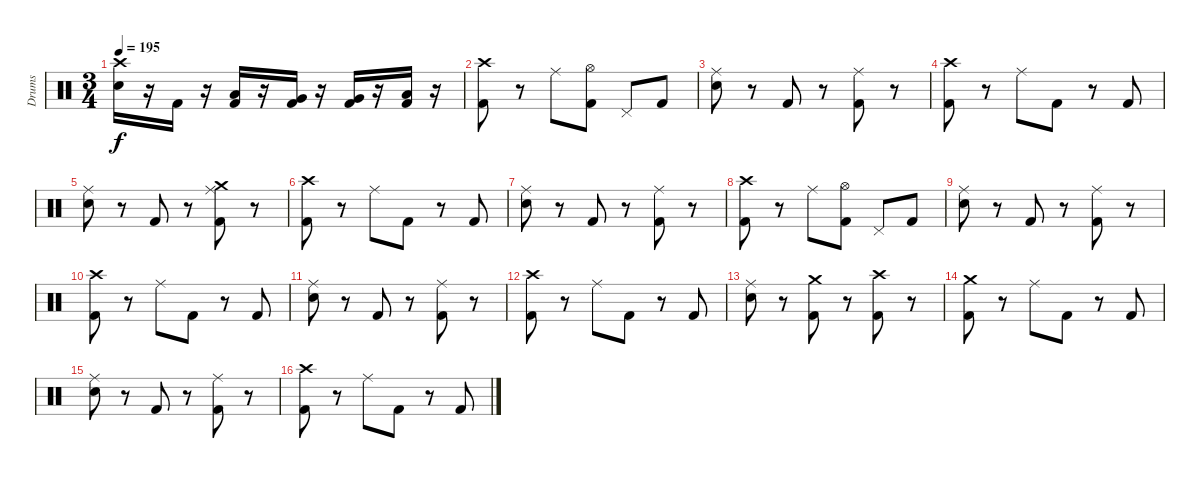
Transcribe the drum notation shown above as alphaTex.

\track ("Drums" "Drums") {instrument percussion}
\staff {score}
\articulation defaults
\ts (3 4)
\tempo 195
\clef neutral
\ks c
("Crash high (hit)" "Electric Snare (hit)").16{dy f} r.16 "Kick (hit) 2".16 r.16 ("Low Tom (hit)" "Kick (hit) 2").16 r.16 ("Very Low Tom (hit)" "Kick (hit) 2").16 r.16 ("Very Low Tom (hit)" "Kick (hit) 2").16 r.16 ("Low Floor Tom (hit)" "Kick (hit) 2").16 r.16 |
("Crash high (hit)" "Kick (hit) 2").8 r.8 "Ride (middle)".8 ("Hi-Hat (open)" "Kick (hit) 2").8 "Pedal Hi-Hat (hit)".8 "Kick (hit) 2".8 |
("Ride (middle)" "Electric Snare (hit)").8 r.8 "Kick (hit) 2".8 r.8 ("Ride (middle)" "Kick (hit) 2").8 r.8 |
("Crash high (hit)" "Kick (hit) 2").8 r.8 "Ride (middle)".8 "Kick (hit) 2".8 r.8 "Kick (hit) 2".8 |
("Ride (middle)" "Electric Snare (hit)").8 r.8 "Kick (hit) 2".8 r.8 ("Crash medium (hit)" "Ride (middle)" "Kick (hit) 2").8 r.8 |
("Crash high (hit)" "Kick (hit) 2").8 r.8 "Ride (middle)".8 "Kick (hit) 2".8 r.8 "Kick (hit) 2".8 |
("Ride (middle)" "Electric Snare (hit)").8 r.8 "Kick (hit) 2".8 r.8 ("Ride (middle)" "Kick (hit) 2").8 r.8 |
("Crash high (hit)" "Kick (hit) 2").8 r.8 "Ride (middle)".8 ("Hi-Hat (open)" "Kick (hit) 2").8 "Pedal Hi-Hat (hit)".8 "Kick (hit) 2".8 |
("Ride (middle)" "Electric Snare (hit)").8 r.8 "Kick (hit) 2".8 r.8 ("Ride (middle)" "Kick (hit) 2").8 r.8 |
("Crash high (hit)" "Kick (hit) 2").8 r.8 "Ride (middle)".8 "Kick (hit) 2".8 r.8 "Kick (hit) 2".8 |
("Ride (middle)" "Electric Snare (hit)").8 r.8 "Kick (hit) 2".8 r.8 ("Ride (middle)" "Kick (hit) 2").8 r.8 |
("Crash high (hit)" "Kick (hit) 2").8 r.8 "Ride (middle)".8 "Kick (hit) 2".8 r.8 "Kick (hit) 2".8 |
("Ride (middle)" "Electric Snare (hit)").8 r.8 ("Crash medium (hit)" "Kick (hit) 2").8 r.8 ("Crash high (hit)" "Kick (hit) 2").8 r.8 |
("Crash medium (hit)" "Kick (hit) 2").8 r.8 "Ride (middle)".8 "Kick (hit) 2".8 r.8 "Kick (hit) 2".8 |
("Ride (middle)" "Electric Snare (hit)").8 r.8 "Kick (hit) 2".8 r.8 ("Ride (middle)" "Kick (hit) 2").8 r.8 |
("Crash high (hit)" "Kick (hit) 2").8 r.8 "Ride (middle)".8 "Kick (hit) 2".8 r.8 "Kick (hit) 2".8
